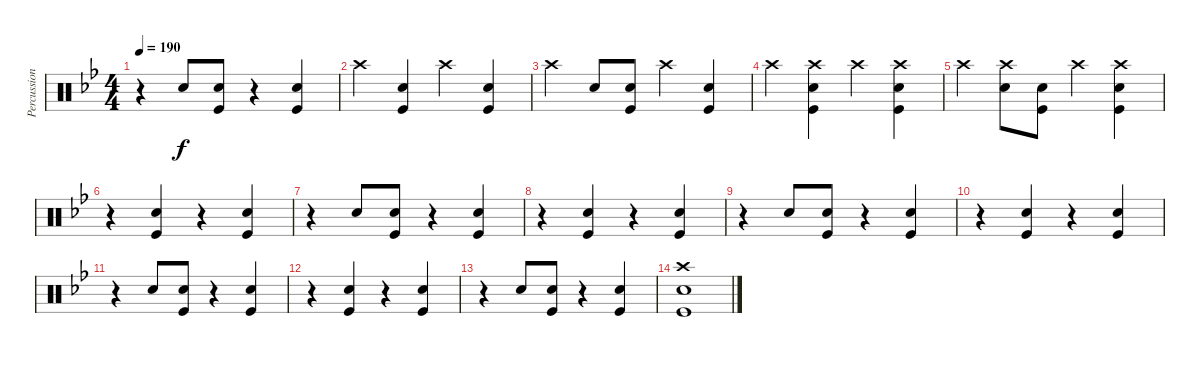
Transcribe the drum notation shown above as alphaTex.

\track ("Percussion" "Percussion") {instrument percussion}
\staff {score}
\articulation defaults
\ts (4 4)
\tempo 190
\clef neutral
\ks bb
r.4{dy f} "Snare (hit) 2".8 ("Kick (hit)" "Snare (hit) 2").8 r.4 ("Kick (hit)" "Snare (hit) 2").4 |
"Crash high (hit)".4 ("Kick (hit)" "Snare (hit) 2").4 "Crash high (hit)".4 ("Kick (hit)" "Snare (hit) 2").4 |
"Crash high (hit)".4 "Snare (hit) 2".8 ("Kick (hit)" "Snare (hit) 2").8 "Crash high (hit)".4 ("Kick (hit)" "Snare (hit) 2").4 |
"Crash high (hit)".4 ("Kick (hit)" "Snare (hit) 2" "Crash high (hit)").4 "Crash high (hit)".4 ("Kick (hit)" "Snare (hit) 2" "Crash high (hit)").4 |
"Crash high (hit)".4 ("Snare (hit) 2" "Crash high (hit)").8 ("Kick (hit)" "Snare (hit) 2").8 "Crash high (hit)".4 ("Kick (hit)" "Snare (hit) 2" "Crash high (hit)").4 |
r.4 ("Kick (hit)" "Snare (hit) 2").4 r.4 ("Kick (hit)" "Snare (hit) 2").4 |
r.4 "Snare (hit) 2".8 ("Kick (hit)" "Snare (hit) 2").8 r.4 ("Kick (hit)" "Snare (hit) 2").4 |
r.4 ("Kick (hit)" "Snare (hit) 2").4 r.4 ("Kick (hit)" "Snare (hit) 2").4 |
r.4 "Snare (hit) 2".8 ("Kick (hit)" "Snare (hit) 2").8 r.4 ("Kick (hit)" "Snare (hit) 2").4 |
r.4 ("Kick (hit)" "Snare (hit) 2").4 r.4 ("Kick (hit)" "Snare (hit) 2").4 |
r.4 "Snare (hit) 2".8 ("Kick (hit)" "Snare (hit) 2").8 r.4 ("Kick (hit)" "Snare (hit) 2").4 |
r.4 ("Kick (hit)" "Snare (hit) 2").4 r.4 ("Kick (hit)" "Snare (hit) 2").4 |
r.4 "Snare (hit) 2".8 ("Kick (hit)" "Snare (hit) 2").8 r.4 ("Kick (hit)" "Snare (hit) 2").4 |
("Kick (hit)" "Snare (hit) 2" "Crash high (hit)").1{volume 0}
